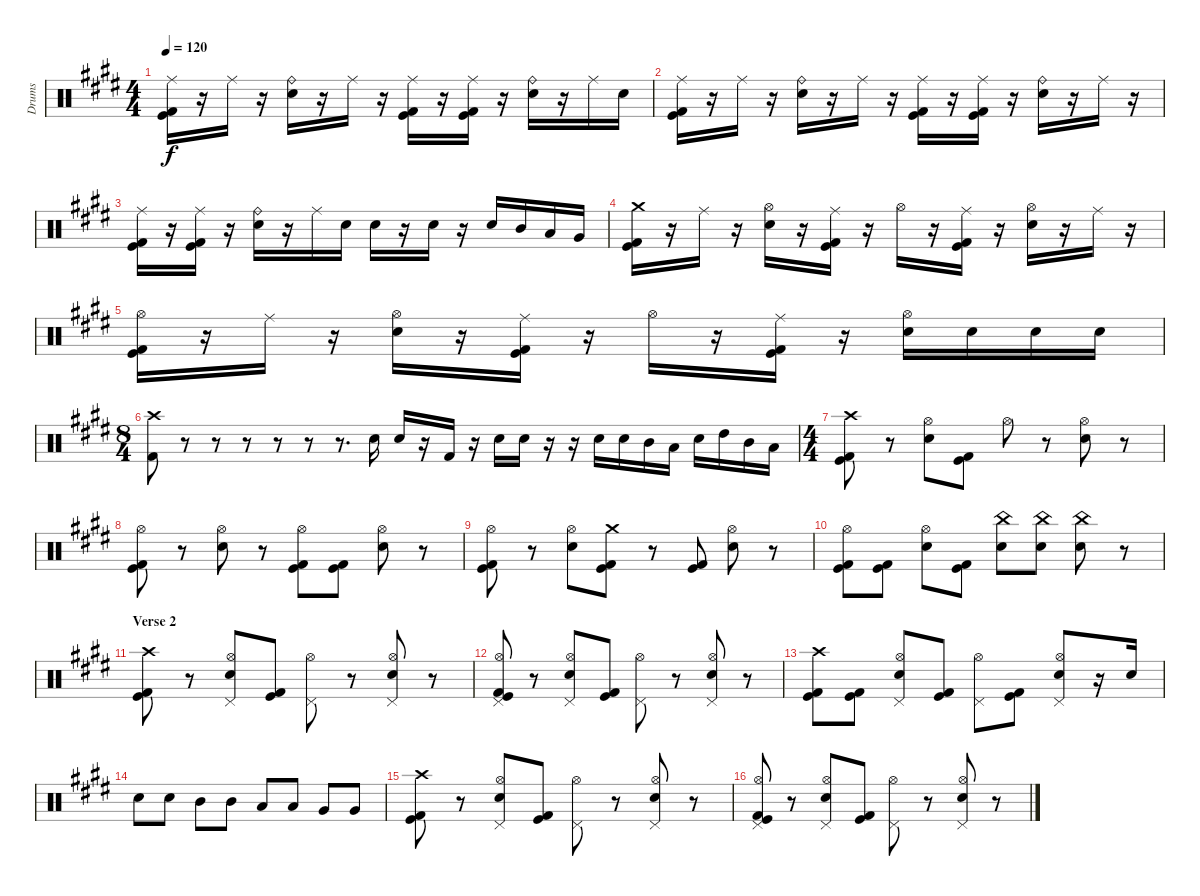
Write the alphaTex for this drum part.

\track ("Drums" "Drums") {instrument percussion}
\staff {score}
\articulation defaults
\ts (4 4)
\tempo 120
\clef neutral
\ks e
("Ride (middle)" "Kick (hit) 2" "Kick (hit)").16{dy f} r.16 "Ride (middle)".16 r.16 ("Ride (bell)" "Electric Snare (hit)").16 r.16 "Ride (middle)".16 r.16 ("Ride (middle)" "Kick (hit) 2" "Kick (hit)").16 r.16 ("Ride (middle)" "Kick (hit) 2" "Kick (hit)").16 r.16 ("Ride (bell)" "Electric Snare (hit)").16 r.16 "Ride (middle)".16 "Electric Snare (hit)".16 |
("Ride (middle)" "Kick (hit) 2" "Kick (hit)").16 r.16 "Ride (middle)".16 r.16 ("Ride (bell)" "Electric Snare (hit)").16 r.16 "Ride (middle)".16 r.16 ("Ride (middle)" "Kick (hit) 2" "Kick (hit)").16 r.16 ("Ride (middle)" "Kick (hit) 2" "Kick (hit)").16 r.16 ("Ride (bell)" "Electric Snare (hit)").16 r.16 "Ride (middle)".16 r.16 |
("Ride (middle)" "Kick (hit) 2" "Kick (hit)").16 r.16 ("Ride (middle)" "Kick (hit) 2" "Kick (hit)").16 r.16 ("Ride (bell)" "Electric Snare (hit)").16 r.16 "Ride (middle)".16 "Electric Snare (hit)".16 "Electric Snare (hit)".16 r.16 "Electric Snare (hit)".16 r.16 "Electric Snare (hit)".16 "Mid Tom (hit)".16 "Low Tom (hit)".16 "Very Low Tom (hit)".16 |
("Crash medium (hit)" "Kick (hit) 2" "Kick (hit)").16 r.16 "Ride (middle)".16 r.16 ("Hi-Hat (open)" "Electric Snare (hit)").16 r.16 ("Ride (middle)" "Kick (hit) 2" "Kick (hit)").16 r.16 "Hi-Hat (open)".16 r.16 ("Ride (middle)" "Kick (hit) 2" "Kick (hit)").16 r.16 ("Hi-Hat (open)" "Electric Snare (hit)").16 r.16 "Ride (middle)".16 r.16 |
("Hi-Hat (open)" "Kick (hit) 2" "Kick (hit)").16 r.16 "Ride (middle)".16 r.16 ("Hi-Hat (open)" "Electric Snare (hit)").16 r.16 ("Ride (middle)" "Kick (hit) 2" "Kick (hit)").16 r.16 "Hi-Hat (open)".16 r.16 ("Ride (middle)" "Kick (hit) 2" "Kick (hit)").16 r.16 ("Hi-Hat (open)" "Electric Snare (hit)").16 "Electric Snare (hit)".16 "Electric Snare (hit)".16 "Electric Snare (hit)".16 |
\ts (8 4)
("Crash high (hit)" "Kick (hit) 2").8 r.8 r.8 r.8 r.8 r.8 r.8{d} "Electric Snare (hit)".16 "Electric Snare (hit)".16 r.16 "Kick (hit) 2".16 r.16 "Electric Snare (hit)".16 "Electric Snare (hit)".16 r.16 r.16 "Electric Snare (hit)".16 "Electric Snare (hit)".16 "Mid Tom (hit)".16 "Low Tom (hit)".16 "Electric Snare (hit)".16 "High Tom (hit)".16 "Mid Tom (hit)".16 "Low Tom (hit)".16 |
\ts (4 4)
("Crash high (hit)" "Kick (hit)" "Kick (hit) 2").8 r.8 ("Hi-Hat (open)" "Electric Snare (hit)").8 ("Kick (hit)" "Kick (hit) 2").8 "Hi-Hat (open)".8 r.8 ("Hi-Hat (open)" "Electric Snare (hit)").8 r.8 |
("Hi-Hat (open)" "Kick (hit)" "Kick (hit) 2").8 r.8 ("Hi-Hat (open)" "Electric Snare (hit)").8 r.8 ("Hi-Hat (open)" "Kick (hit)" "Kick (hit) 2").8 ("Kick (hit)" "Kick (hit) 2").8 ("Hi-Hat (open)" "Electric Snare (hit)").8 r.8 |
("Hi-Hat (open)" "Kick (hit)" "Kick (hit) 2").8 r.8 ("Hi-Hat (open)" "Electric Snare (hit)").8 ("Crash medium (hit)" "Kick (hit)" "Kick (hit) 2").8 r.8 ("Kick (hit) 2" "Kick (hit)").8 ("Hi-Hat (open)" "Electric Snare (hit)").8 r.8 |
("Hi-Hat (open)" "Kick (hit)" "Kick (hit) 2").8 ("Kick (hit) 2" "Kick (hit)").8 ("Hi-Hat (open)" "Electric Snare (hit)").8 ("Kick (hit)" "Kick (hit) 2").8 ("China (hit)" "Electric Snare (hit)").8 ("China (hit)" "Electric Snare (hit)").8 ("China (hit)" "Electric Snare (hit)").8 r.8 |
\section ("" "Verse 2")
("Crash high (hit)" "Kick (hit)" "Kick (hit) 2").8 r.8 ("Hi-Hat (open)" "Pedal Hi-Hat (hit)" "Electric Snare (hit)").8 ("Kick (hit)" "Kick (hit) 2").8 ("Hi-Hat (open)" "Pedal Hi-Hat (hit)").8 r.8 ("Hi-Hat (open)" "Pedal Hi-Hat (hit)" "Electric Snare (hit)").8 r.8 |
("Hi-Hat (open)" "Pedal Hi-Hat (hit)" "Kick (hit)" "Kick (hit) 2").8 r.8 ("Hi-Hat (open)" "Pedal Hi-Hat (hit)" "Electric Snare (hit)").8 ("Kick (hit)" "Kick (hit) 2").8 ("Hi-Hat (open)" "Pedal Hi-Hat (hit)").8 r.8 ("Hi-Hat (open)" "Pedal Hi-Hat (hit)" "Electric Snare (hit)").8 r.8 |
("Crash high (hit)" "Kick (hit)" "Kick (hit) 2").8 ("Kick (hit) 2" "Kick (hit)").8 ("Hi-Hat (open)" "Pedal Hi-Hat (hit)" "Electric Snare (hit)").8 ("Kick (hit)" "Kick (hit) 2").8 ("Hi-Hat (open)" "Pedal Hi-Hat (hit)").8 ("Kick (hit) 2" "Kick (hit)").8 ("Hi-Hat (open)" "Pedal Hi-Hat (hit)" "Electric Snare (hit)").8 r.16 "Electric Snare (hit)".16 |
"Electric Snare (hit)".8 "Electric Snare (hit)".8 "Mid Tom (hit)".8 "Mid Tom (hit)".8 "Low Tom (hit)".8 "Low Tom (hit)".8 "Very Low Tom (hit)".8 "Very Low Tom (hit)".8 |
("Crash high (hit)" "Kick (hit)" "Kick (hit) 2").8 r.8 ("Hi-Hat (open)" "Pedal Hi-Hat (hit)" "Electric Snare (hit)").8 ("Kick (hit)" "Kick (hit) 2").8 ("Hi-Hat (open)" "Pedal Hi-Hat (hit)").8 r.8 ("Hi-Hat (open)" "Pedal Hi-Hat (hit)" "Electric Snare (hit)").8 r.8 |
("Hi-Hat (open)" "Pedal Hi-Hat (hit)" "Kick (hit)" "Kick (hit) 2").8 r.8 ("Hi-Hat (open)" "Pedal Hi-Hat (hit)" "Electric Snare (hit)").8 ("Kick (hit)" "Kick (hit) 2").8 ("Hi-Hat (open)" "Pedal Hi-Hat (hit)").8 r.8 ("Hi-Hat (open)" "Pedal Hi-Hat (hit)" "Electric Snare (hit)").8 r.8
